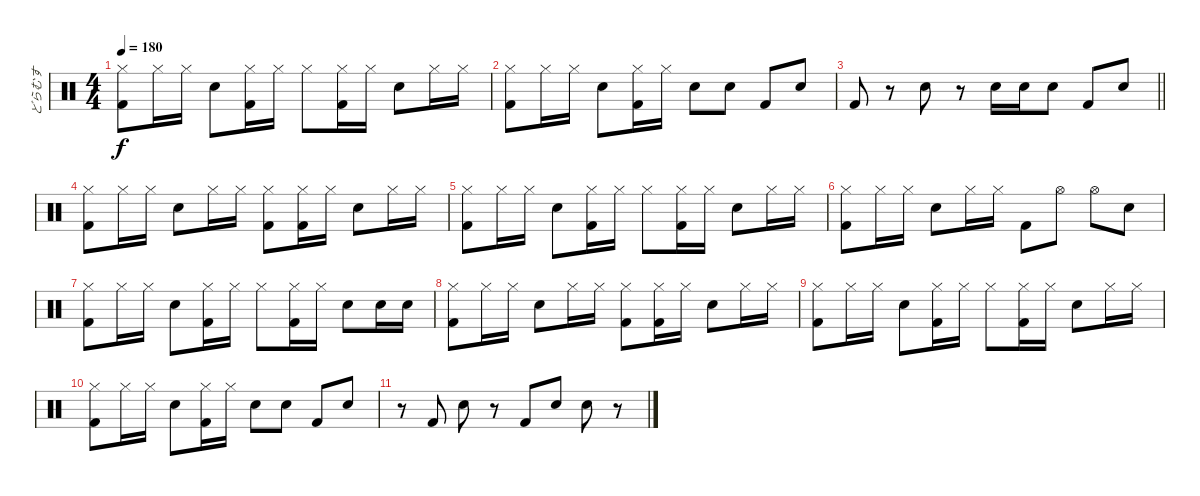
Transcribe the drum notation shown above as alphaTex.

\track ("どらむす" "どらむす") {instrument percussion}
\staff {score}
\articulation defaults
\ts (4 4)
\tempo 180
\clef neutral
\ks c
("Hi-Hat (closed)" "Kick (hit) 2").8{dy f} "Hi-Hat (closed)".16 "Hi-Hat (closed)".16 "Electric Snare (hit)".8 ("Hi-Hat (closed)" "Kick (hit) 2").16 "Hi-Hat (closed)".16 "Hi-Hat (closed)".8 ("Hi-Hat (closed)" "Kick (hit) 2").16 "Hi-Hat (closed)".16 "Electric Snare (hit)".8 "Hi-Hat (closed)".16 "Hi-Hat (closed)".16 |
("Hi-Hat (closed)" "Kick (hit) 2").8 "Hi-Hat (closed)".16 "Hi-Hat (closed)".16 "Electric Snare (hit)".8 ("Hi-Hat (closed)" "Kick (hit) 2").16 "Hi-Hat (closed)".16 "Electric Snare (hit)".8 "Electric Snare (hit)".8 "Kick (hit) 2".8 "Electric Snare (hit)".8 |
\barLineRight lightlight "Kick (hit) 2".8
r.8 "Electric Snare (hit)".8 r.8 "Electric Snare (hit)".16 "Electric Snare (hit)".16 "Electric Snare (hit)".8 "Kick (hit) 2".8 "Electric Snare (hit)".8 |
("Hi-Hat (closed)" "Kick (hit) 2").8 "Hi-Hat (closed)".16 "Hi-Hat (closed)".16 "Electric Snare (hit)".8 "Hi-Hat (closed)".16 "Hi-Hat (closed)".16 ("Hi-Hat (closed)" "Kick (hit) 2").8 ("Hi-Hat (closed)" "Kick (hit) 2").16 "Hi-Hat (closed)".16 "Electric Snare (hit)".8 "Hi-Hat (closed)".16 "Hi-Hat (closed)".16 |
("Hi-Hat (closed)" "Kick (hit) 2").8 "Hi-Hat (closed)".16 "Hi-Hat (closed)".16 "Electric Snare (hit)".8 ("Hi-Hat (closed)" "Kick (hit) 2").16 "Hi-Hat (closed)".16 "Hi-Hat (closed)".8 ("Hi-Hat (closed)" "Kick (hit) 2").16 "Hi-Hat (closed)".16 "Electric Snare (hit)".8 "Hi-Hat (closed)".16 "Hi-Hat (closed)".16 |
("Hi-Hat (closed)" "Kick (hit) 2").8 "Hi-Hat (closed)".16 "Hi-Hat (closed)".16 "Electric Snare (hit)".8 "Hi-Hat (closed)".16 "Hi-Hat (closed)".16 "Kick (hit) 2".8 "Hi-Hat (open)".8 "Hi-Hat (open)".8 "Electric Snare (hit)".8 |
("Hi-Hat (closed)" "Kick (hit) 2").8 "Hi-Hat (closed)".16 "Hi-Hat (closed)".16 "Electric Snare (hit)".8 ("Hi-Hat (closed)" "Kick (hit) 2").16 "Hi-Hat (closed)".16 "Hi-Hat (closed)".8 ("Hi-Hat (closed)" "Kick (hit) 2").16 "Hi-Hat (closed)".16 "Electric Snare (hit)".8 "Electric Snare (hit)".16 "Electric Snare (hit)".16 |
("Hi-Hat (closed)" "Kick (hit) 2").8 "Hi-Hat (closed)".16 "Hi-Hat (closed)".16 "Electric Snare (hit)".8 "Hi-Hat (closed)".16 "Hi-Hat (closed)".16 ("Hi-Hat (closed)" "Kick (hit) 2").8 ("Hi-Hat (closed)" "Kick (hit) 2").16 "Hi-Hat (closed)".16 "Electric Snare (hit)".8 "Hi-Hat (closed)".16 "Hi-Hat (closed)".16 |
("Hi-Hat (closed)" "Kick (hit) 2").8 "Hi-Hat (closed)".16 "Hi-Hat (closed)".16 "Electric Snare (hit)".8 ("Hi-Hat (closed)" "Kick (hit) 2").16 "Hi-Hat (closed)".16 "Hi-Hat (closed)".8 ("Hi-Hat (closed)" "Kick (hit) 2").16 "Hi-Hat (closed)".16 "Electric Snare (hit)".8 "Hi-Hat (closed)".16 "Hi-Hat (closed)".16 |
("Hi-Hat (closed)" "Kick (hit) 2").8 "Hi-Hat (closed)".16 "Hi-Hat (closed)".16 "Electric Snare (hit)".8 ("Hi-Hat (closed)" "Kick (hit) 2").16 "Hi-Hat (closed)".16 "Electric Snare (hit)".8 "Electric Snare (hit)".8 "Kick (hit) 2".8 "Electric Snare (hit)".8 |
r.8 "Kick (hit) 2".8 "Electric Snare (hit)".8 r.8 "Kick (hit) 2".8 "Electric Snare (hit)".8 "Electric Snare (hit)".8 r.8
